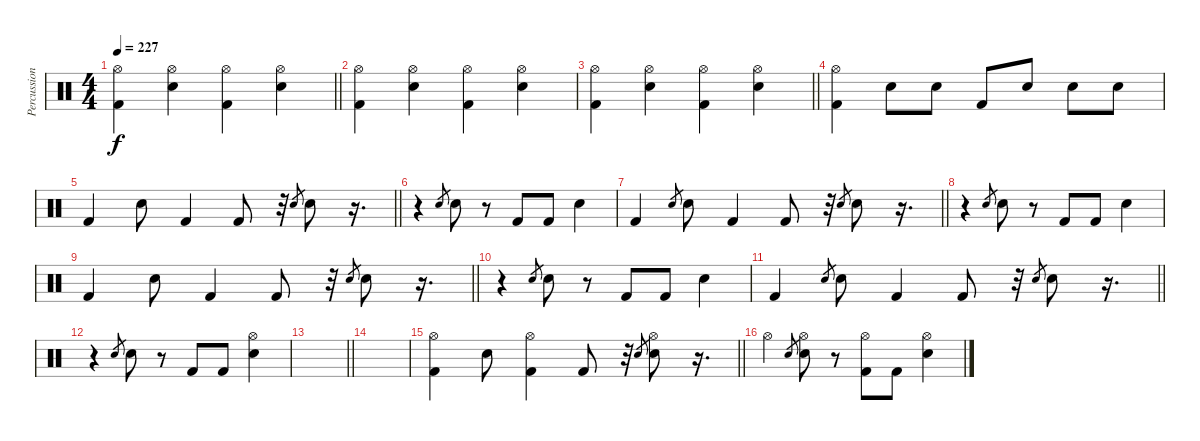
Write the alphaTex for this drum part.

\track ("Percussion" "Percussion") {instrument percussion}
\staff {score}
\articulation defaults
\ts (4 4)
\tempo 227
\clef neutral
\barLineRight lightlight
\ks c
("Hi-Hat (open)" "Kick (hit) 2").4{dy f} ("Hi-Hat (open)" "Snare (hit) 2").4 ("Hi-Hat (open)" "Kick (hit) 2").4 ("Hi-Hat (open)" "Snare (hit) 2").4 |
("Hi-Hat (open)" "Kick (hit) 2").4 ("Hi-Hat (open)" "Snare (hit) 2").4 ("Hi-Hat (open)" "Kick (hit) 2").4 ("Hi-Hat (open)" "Snare (hit) 2").4 |
\barLineRight lightlight
("Hi-Hat (open)" "Kick (hit) 2").4 ("Hi-Hat (open)" "Snare (hit) 2").4 ("Hi-Hat (open)" "Kick (hit) 2").4 ("Hi-Hat (open)" "Snare (hit) 2").4 |
("Hi-Hat (open)" "Kick (hit) 2").4 "Snare (hit) 2".8 "Snare (hit) 2".8 "Kick (hit) 2".8 "Snare (hit) 2".8 "Snare (hit) 2".8 "Snare (hit) 2".8 |
\barLineRight lightlight "Kick (hit) 2".4 "Snare (hit) 2".8 "Kick (hit) 2".4 "Kick (hit) 2".8
r.32 "Snare (hit) 2".8{gr} "Snare (hit) 2".8 r.16{d} |
r.4 "Snare (hit) 2".8{gr} "Snare (hit) 2".8 r.8 "Kick (hit) 2".8 "Kick (hit) 2".8 "Snare (hit) 2".4 |
\barLineRight lightlight "Kick (hit) 2".4 "Snare (hit) 2".8{gr} "Snare (hit) 2".8 "Kick (hit) 2".4 "Kick (hit) 2".8
r.32 "Snare (hit) 2".8{gr} "Snare (hit) 2".8 r.16{d} |
r.4 "Snare (hit) 2".8{gr} "Snare (hit) 2".8 r.8 "Kick (hit) 2".8 "Kick (hit) 2".8 "Snare (hit) 2".4 |
\barLineRight lightlight "Kick (hit) 2".4 "Snare (hit) 2".8 "Kick (hit) 2".4 "Kick (hit) 2".8
r.32 "Snare (hit) 2".8{gr} "Snare (hit) 2".8 r.16{d} |
r.4 "Snare (hit) 2".8{gr} "Snare (hit) 2".8 r.8 "Kick (hit) 2".8 "Kick (hit) 2".8 "Snare (hit) 2".4 |
\barLineRight lightlight "Kick (hit) 2".4 "Snare (hit) 2".8{gr} "Snare (hit) 2".8 "Kick (hit) 2".4 "Kick (hit) 2".8
r.32 "Snare (hit) 2".8{gr} "Snare (hit) 2".8 r.16{d} |
r.4 "Snare (hit) 2".8{gr} "Snare (hit) 2".8 r.8 "Kick (hit) 2".8 "Kick (hit) 2".8 ("Hi-Hat (open)" "Snare (hit) 2").4 |
\barLineRight lightlight
|
|
\barLineRight lightlight
("Hi-Hat (open)" "Kick (hit) 2").4 "Snare (hit) 2".8 ("Hi-Hat (open)" "Kick (hit) 2").4 "Kick (hit) 2".8 r.32 "Snare (hit) 2".8{gr} ("Hi-Hat (open)" "Snare (hit) 2").8 r.16{d} |
"Hi-Hat (open)".4 "Snare (hit) 2".8{gr} ("Hi-Hat (open)" "Snare (hit) 2").8 r.8 ("Hi-Hat (open)" "Kick (hit) 2").8 "Kick (hit) 2".8 ("Hi-Hat (open)" "Snare (hit) 2").4
